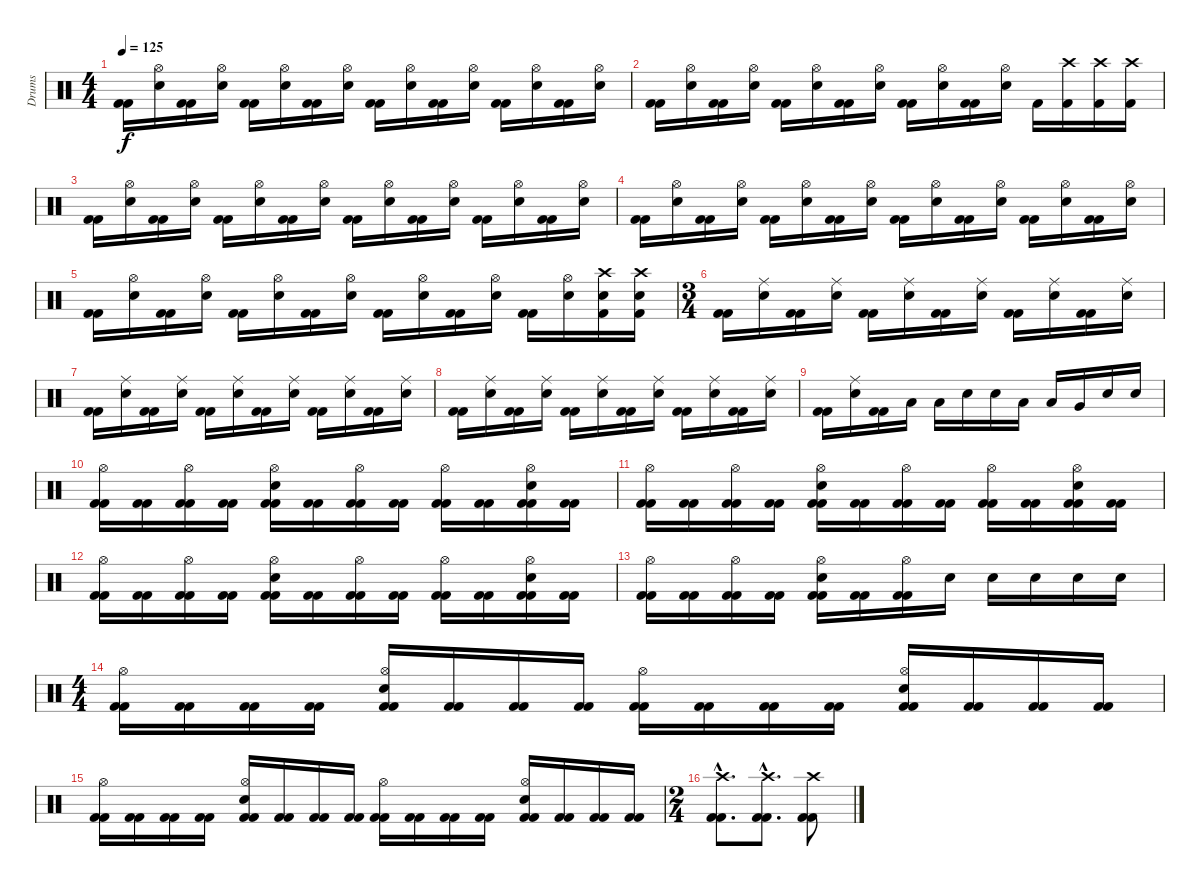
\track ("Drums" "Drums") {instrument percussion}
\staff {score}
\articulation defaults
\ts (4 4)
\tempo 125
\clef neutral
\ks c
("Kick (hit) 2" "Kick (hit) 2").16{dy f} ("Hi-Hat (open)" "Snare (hit) 2").16 ("Kick (hit) 2" "Kick (hit) 2").16 ("Hi-Hat (open)" "Snare (hit) 2").16 ("Kick (hit) 2" "Kick (hit) 2").16 ("Hi-Hat (open)" "Snare (hit) 2").16 ("Kick (hit) 2" "Kick (hit) 2").16 ("Hi-Hat (open)" "Snare (hit) 2").16 ("Kick (hit) 2" "Kick (hit) 2").16 ("Hi-Hat (open)" "Snare (hit) 2").16 ("Kick (hit) 2" "Kick (hit) 2").16 ("Hi-Hat (open)" "Snare (hit) 2").16 ("Kick (hit) 2" "Kick (hit) 2").16 ("Hi-Hat (open)" "Snare (hit) 2").16 ("Kick (hit) 2" "Kick (hit) 2").16 ("Hi-Hat (open)" "Snare (hit) 2").16 |
("Kick (hit) 2" "Kick (hit) 2").16 ("Hi-Hat (open)" "Snare (hit) 2").16 ("Kick (hit) 2" "Kick (hit) 2").16 ("Hi-Hat (open)" "Snare (hit) 2").16 ("Kick (hit) 2" "Kick (hit) 2").16 ("Hi-Hat (open)" "Snare (hit) 2").16 ("Kick (hit) 2" "Kick (hit) 2").16 ("Hi-Hat (open)" "Snare (hit) 2").16 ("Kick (hit) 2" "Kick (hit) 2").16 ("Hi-Hat (open)" "Snare (hit) 2").16 ("Kick (hit) 2" "Kick (hit) 2").16 ("Hi-Hat (open)" "Snare (hit) 2").16 "Kick (hit) 2".16 ("Crash high (hit)" "Kick (hit) 2").16 ("Crash high (hit)" "Kick (hit) 2").16 ("Crash high (hit)" "Kick (hit) 2").16 |
("Kick (hit) 2" "Kick (hit) 2").16 ("Hi-Hat (open)" "Snare (hit) 2").16 ("Kick (hit) 2" "Kick (hit) 2").16 ("Hi-Hat (open)" "Snare (hit) 2").16 ("Kick (hit) 2" "Kick (hit) 2").16 ("Hi-Hat (open)" "Snare (hit) 2").16 ("Kick (hit) 2" "Kick (hit) 2").16 ("Hi-Hat (open)" "Snare (hit) 2").16 ("Kick (hit) 2" "Kick (hit) 2").16 ("Hi-Hat (open)" "Snare (hit) 2").16 ("Kick (hit) 2" "Kick (hit) 2").16 ("Hi-Hat (open)" "Snare (hit) 2").16 ("Kick (hit) 2" "Kick (hit) 2").16 ("Hi-Hat (open)" "Snare (hit) 2").16 ("Kick (hit) 2" "Kick (hit) 2").16 ("Hi-Hat (open)" "Snare (hit) 2").16 |
("Kick (hit) 2" "Kick (hit) 2").16 ("Hi-Hat (open)" "Snare (hit) 2").16 ("Kick (hit) 2" "Kick (hit) 2").16 ("Hi-Hat (open)" "Snare (hit) 2").16 ("Kick (hit) 2" "Kick (hit) 2").16 ("Hi-Hat (open)" "Snare (hit) 2").16 ("Kick (hit) 2" "Kick (hit) 2").16 ("Hi-Hat (open)" "Snare (hit) 2").16 ("Kick (hit) 2" "Kick (hit) 2").16 ("Hi-Hat (open)" "Snare (hit) 2").16 ("Kick (hit) 2" "Kick (hit) 2").16 ("Hi-Hat (open)" "Snare (hit) 2").16 ("Kick (hit) 2" "Kick (hit) 2").16 ("Hi-Hat (open)" "Snare (hit) 2").16 ("Kick (hit) 2" "Kick (hit) 2").16 ("Hi-Hat (open)" "Snare (hit) 2").16 |
("Kick (hit) 2" "Kick (hit) 2").16 ("Hi-Hat (open)" "Snare (hit) 2").16 ("Kick (hit) 2" "Kick (hit) 2").16 ("Hi-Hat (open)" "Snare (hit) 2").16 ("Kick (hit) 2" "Kick (hit) 2").16 ("Hi-Hat (open)" "Snare (hit) 2").16 ("Kick (hit) 2" "Kick (hit) 2").16 ("Hi-Hat (open)" "Snare (hit) 2").16 ("Kick (hit) 2" "Kick (hit) 2").16 ("Hi-Hat (open)" "Snare (hit) 2").16 ("Kick (hit) 2" "Kick (hit) 2").16 ("Hi-Hat (open)" "Snare (hit) 2").16 ("Kick (hit) 2" "Kick (hit) 2").16 ("Hi-Hat (open)" "Snare (hit) 2").16 ("Crash high (hit)" "Snare (hit) 2" "Kick (hit) 2").16 ("Crash high (hit)" "Snare (hit) 2" "Kick (hit) 2").16 |
\ts (3 4)
("Kick (hit) 2" "Kick (hit) 2").16 ("Ride (middle)" "Snare (hit) 2").16 ("Kick (hit) 2" "Kick (hit) 2").16 ("Ride (middle)" "Snare (hit) 2").16 ("Kick (hit) 2" "Kick (hit) 2").16 ("Ride (middle)" "Snare (hit) 2").16 ("Kick (hit) 2" "Kick (hit) 2").16 ("Ride (middle)" "Snare (hit) 2").16 ("Kick (hit) 2" "Kick (hit) 2").16 ("Ride (middle)" "Snare (hit) 2").16 ("Kick (hit) 2" "Kick (hit) 2").16 ("Ride (middle)" "Snare (hit) 2").16 |
("Kick (hit) 2" "Kick (hit) 2").16 ("Ride (middle)" "Snare (hit) 2").16 ("Kick (hit) 2" "Kick (hit) 2").16 ("Ride (middle)" "Snare (hit) 2").16 ("Kick (hit) 2" "Kick (hit) 2").16 ("Ride (middle)" "Snare (hit) 2").16 ("Kick (hit) 2" "Kick (hit) 2").16 ("Ride (middle)" "Snare (hit) 2").16 ("Kick (hit) 2" "Kick (hit) 2").16 ("Ride (middle)" "Snare (hit) 2").16 ("Kick (hit) 2" "Kick (hit) 2").16 ("Ride (middle)" "Snare (hit) 2").16 |
("Kick (hit) 2" "Kick (hit) 2").16 ("Ride (middle)" "Snare (hit) 2").16 ("Kick (hit) 2" "Kick (hit) 2").16 ("Ride (middle)" "Snare (hit) 2").16 ("Kick (hit) 2" "Kick (hit) 2").16 ("Ride (middle)" "Snare (hit) 2").16 ("Kick (hit) 2" "Kick (hit) 2").16 ("Ride (middle)" "Snare (hit) 2").16 ("Kick (hit) 2" "Kick (hit) 2").16 ("Ride (middle)" "Snare (hit) 2").16 ("Kick (hit) 2" "Kick (hit) 2").16 ("Ride (middle)" "Snare (hit) 2").16 |
("Kick (hit) 2" "Kick (hit) 2").16 ("Ride (middle)" "Snare (hit) 2").16 ("Kick (hit) 2" "Kick (hit) 2").16 "Low Tom (hit)".16 "Low Tom (hit)".16 "Snare (hit) 2".16 "Snare (hit) 2".16 "Low Tom (hit)".16 "Low Tom (hit)".16 "Very Low Tom (hit)".16 "Snare (hit) 2".16 "Snare (hit) 2".16 |
("Hi-Hat (open)" "Kick (hit) 2" "Kick (hit) 2").16 ("Kick (hit) 2" "Kick (hit) 2").16 ("Hi-Hat (open)" "Kick (hit) 2" "Kick (hit) 2").16 ("Kick (hit) 2" "Kick (hit) 2").16 ("Hi-Hat (open)" "Snare (hit) 2" "Kick (hit) 2" "Kick (hit) 2").16 ("Kick (hit) 2" "Kick (hit) 2").16 ("Hi-Hat (open)" "Kick (hit) 2" "Kick (hit) 2").16 ("Kick (hit) 2" "Kick (hit) 2").16 ("Hi-Hat (open)" "Kick (hit) 2" "Kick (hit) 2").16 ("Kick (hit) 2" "Kick (hit) 2").16 ("Hi-Hat (open)" "Snare (hit) 2" "Kick (hit) 2" "Kick (hit) 2").16 ("Kick (hit) 2" "Kick (hit) 2").16 |
("Hi-Hat (open)" "Kick (hit) 2" "Kick (hit) 2").16 ("Kick (hit) 2" "Kick (hit) 2").16 ("Hi-Hat (open)" "Kick (hit) 2" "Kick (hit) 2").16 ("Kick (hit) 2" "Kick (hit) 2").16 ("Hi-Hat (open)" "Snare (hit) 2" "Kick (hit) 2" "Kick (hit) 2").16 ("Kick (hit) 2" "Kick (hit) 2").16 ("Hi-Hat (open)" "Kick (hit) 2" "Kick (hit) 2").16 ("Kick (hit) 2" "Kick (hit) 2").16 ("Hi-Hat (open)" "Kick (hit) 2" "Kick (hit) 2").16 ("Kick (hit) 2" "Kick (hit) 2").16 ("Hi-Hat (open)" "Snare (hit) 2" "Kick (hit) 2" "Kick (hit) 2").16 ("Kick (hit) 2" "Kick (hit) 2").16 |
("Hi-Hat (open)" "Kick (hit) 2" "Kick (hit) 2").16 ("Kick (hit) 2" "Kick (hit) 2").16 ("Hi-Hat (open)" "Kick (hit) 2" "Kick (hit) 2").16 ("Kick (hit) 2" "Kick (hit) 2").16 ("Hi-Hat (open)" "Snare (hit) 2" "Kick (hit) 2" "Kick (hit) 2").16 ("Kick (hit) 2" "Kick (hit) 2").16 ("Hi-Hat (open)" "Kick (hit) 2" "Kick (hit) 2").16 ("Kick (hit) 2" "Kick (hit) 2").16 ("Hi-Hat (open)" "Kick (hit) 2" "Kick (hit) 2").16 ("Kick (hit) 2" "Kick (hit) 2").16 ("Hi-Hat (open)" "Snare (hit) 2" "Kick (hit) 2" "Kick (hit) 2").16 ("Kick (hit) 2" "Kick (hit) 2").16 |
("Hi-Hat (open)" "Kick (hit) 2" "Kick (hit) 2").16 ("Kick (hit) 2" "Kick (hit) 2").16 ("Hi-Hat (open)" "Kick (hit) 2" "Kick (hit) 2").16 ("Kick (hit) 2" "Kick (hit) 2").16 ("Hi-Hat (open)" "Snare (hit) 2" "Kick (hit) 2" "Kick (hit) 2").16 ("Kick (hit) 2" "Kick (hit) 2").16 ("Hi-Hat (open)" "Kick (hit) 2" "Kick (hit) 2").16 "Snare (hit) 2".16 "Snare (hit) 2".16 "Snare (hit) 2".16 "Snare (hit) 2".16 "Snare (hit) 2".16 |
\ts (4 4)
("Hi-Hat (open)" "Kick (hit) 2" "Kick (hit) 2").16 ("Kick (hit) 2" "Kick (hit) 2").16 ("Kick (hit) 2" "Kick (hit) 2").16 ("Kick (hit) 2" "Kick (hit) 2").16 ("Hi-Hat (open)" "Snare (hit) 2" "Kick (hit) 2" "Kick (hit) 2").16 ("Kick (hit) 2" "Kick (hit) 2").16 ("Kick (hit) 2" "Kick (hit) 2").16 ("Kick (hit) 2" "Kick (hit) 2").16 ("Hi-Hat (open)" "Kick (hit) 2" "Kick (hit) 2").16 ("Kick (hit) 2" "Kick (hit) 2").16 ("Kick (hit) 2" "Kick (hit) 2").16 ("Kick (hit) 2" "Kick (hit) 2").16 ("Hi-Hat (open)" "Snare (hit) 2" "Kick (hit) 2" "Kick (hit) 2").16 ("Kick (hit) 2" "Kick (hit) 2").16 ("Kick (hit) 2" "Kick (hit) 2").16 ("Kick (hit) 2" "Kick (hit) 2").16 |
("Hi-Hat (open)" "Kick (hit) 2" "Kick (hit) 2").16 ("Kick (hit) 2" "Kick (hit) 2").16 ("Kick (hit) 2" "Kick (hit) 2").16 ("Kick (hit) 2" "Kick (hit) 2").16 ("Hi-Hat (open)" "Snare (hit) 2" "Kick (hit) 2" "Kick (hit) 2").16 ("Kick (hit) 2" "Kick (hit) 2").16 ("Kick (hit) 2" "Kick (hit) 2").16 ("Kick (hit) 2" "Kick (hit) 2").16 ("Hi-Hat (open)" "Kick (hit) 2" "Kick (hit) 2").16 ("Kick (hit) 2" "Kick (hit) 2").16 ("Kick (hit) 2" "Kick (hit) 2").16 ("Kick (hit) 2" "Kick (hit) 2").16 ("Hi-Hat (open)" "Snare (hit) 2" "Kick (hit) 2" "Kick (hit) 2").16 ("Kick (hit) 2" "Kick (hit) 2").16 ("Kick (hit) 2" "Kick (hit) 2").16 ("Kick (hit) 2" "Kick (hit) 2").16 |
\ts (2 4)
("Crash high (hit)"{hac} "Kick (hit) 2"{hac} "Kick (hit) 2"{hac}).8{d} ("Crash high (hit)"{hac} "Kick (hit) 2"{hac} "Kick (hit) 2"{hac}).8{d} ("Crash high (hit)" "Kick (hit) 2" "Kick (hit) 2").8
